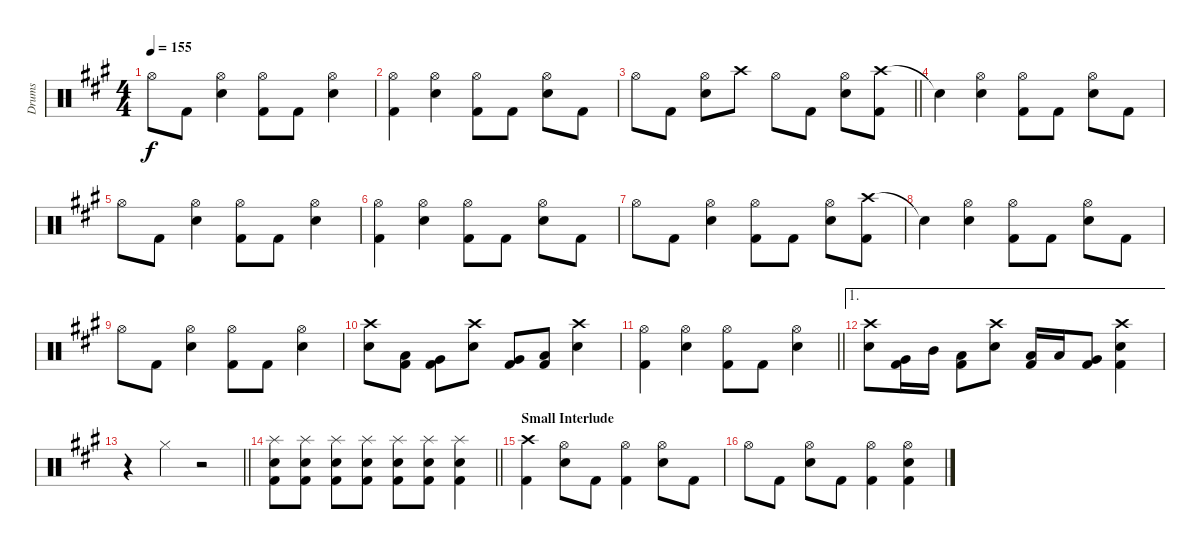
\track ("Drums" "Drums") {instrument percussion}
\staff {score}
\articulation defaults
\ts (4 4)
\tempo 155
\clef neutral
\ks a "Hi-Hat (open)".8{dy f} "Kick (hit) 2".8
("Hi-Hat (open)" "Snare (hit) 2").4 ("Hi-Hat (open)" "Kick (hit) 2").8 "Kick (hit) 2".8 ("Hi-Hat (open)" "Snare (hit) 2").4 |
("Hi-Hat (open)" "Kick (hit) 2").4 ("Hi-Hat (open)" "Snare (hit) 2").4 ("Hi-Hat (open)" "Kick (hit) 2").8 "Kick (hit) 2".8 ("Hi-Hat (open)" "Snare (hit) 2").8 "Kick (hit) 2".8 |
\barLineRight lightlight "Hi-Hat (open)".8 "Kick (hit) 2".8
("Hi-Hat (open)" "Snare (hit) 2").8 "Crash high (hit)".8 "Hi-Hat (open)".8 "Kick (hit) 2".8 ("Hi-Hat (open)" "Snare (hit) 2").8 ("Crash high (hit)" "Kick (hit) 2").8 |
"Snare (hit)"{t}.4 ("Hi-Hat (open)" "Snare (hit) 2").4 ("Hi-Hat (open)" "Kick (hit) 2").8 "Kick (hit) 2".8 ("Hi-Hat (open)" "Snare (hit) 2").8 "Kick (hit) 2".8 |
"Hi-Hat (open)".8 "Kick (hit) 2".8 ("Hi-Hat (open)" "Snare (hit) 2").4 ("Hi-Hat (open)" "Kick (hit) 2").8 "Kick (hit) 2".8 ("Hi-Hat (open)" "Snare (hit) 2").4 |
("Hi-Hat (open)" "Kick (hit) 2").4 ("Hi-Hat (open)" "Snare (hit) 2").4 ("Hi-Hat (open)" "Kick (hit) 2").8 "Kick (hit) 2".8 ("Hi-Hat (open)" "Snare (hit) 2").8 "Kick (hit) 2".8 |
"Hi-Hat (open)".8 "Kick (hit) 2".8 ("Hi-Hat (open)" "Snare (hit) 2").4 ("Hi-Hat (open)" "Kick (hit) 2").8 "Kick (hit) 2".8 ("Hi-Hat (open)" "Snare (hit) 2").8 ("Crash high (hit)" "Kick (hit) 2").8 |
"Snare (hit)"{t}.4 ("Hi-Hat (open)" "Snare (hit) 2").4 ("Hi-Hat (open)" "Kick (hit) 2").8 "Kick (hit) 2".8 ("Hi-Hat (open)" "Snare (hit) 2").8 "Kick (hit) 2".8 |
"Hi-Hat (open)".8 "Kick (hit) 2".8 ("Hi-Hat (open)" "Snare (hit) 2").4 ("Hi-Hat (open)" "Kick (hit) 2").8 "Kick (hit) 2".8 ("Hi-Hat (open)" "Snare (hit) 2").4 |
("Crash high (hit)" "Snare (hit) 2").8 ("Low Tom (hit)" "Kick (hit) 2").8 ("Very Low Tom (hit)" "Kick (hit) 2").8 ("Crash high (hit)" "Snare (hit) 2").8 ("Very Low Tom (hit)" "Kick (hit) 2").8 ("Low Floor Tom (hit)" "Kick (hit) 2").8 ("Crash high (hit)" "Snare (hit) 2").4 |
\barLineRight lightlight
("Hi-Hat (open)" "Kick (hit) 2").4 ("Hi-Hat (open)" "Snare (hit) 2").4 ("Hi-Hat (open)" "Kick (hit) 2").8 "Kick (hit) 2".8 ("Hi-Hat (open)" "Snare (hit) 2").4 |
\ae 1
("Crash high (hit)" "Snare (hit) 2").8 ("Very Low Tom (hit)" "Kick (hit) 2").16 "Mid Tom (hit)".16 ("Low Tom (hit)" "Kick (hit) 2").8 ("Crash high (hit)" "Snare (hit) 2").8 ("Low Floor Tom (hit)" "Kick (hit) 2").16 "Low Tom (hit)".16 ("Very Low Tom (hit)" "Kick (hit) 2").8 ("Crash high (hit)" "Snare (hit) 2" "Kick (hit) 2").4 |
\barLineRight lightlight
r.4 "Hi-Hat (closed)".4 r.2 |
\barLineRight lightlight
("Splash (hit)" "Snare (hit) 2" "Kick (hit) 2").8 ("Splash (hit)" "Snare (hit) 2" "Kick (hit) 2").8 ("Splash (hit)" "Snare (hit) 2" "Kick (hit) 2").8 ("Splash (hit)" "Snare (hit) 2" "Kick (hit) 2").8 ("Splash (hit)" "Snare (hit) 2" "Kick (hit) 2").8 ("Splash (hit)" "Snare (hit) 2" "Kick (hit) 2").8 ("Splash (hit)" "Snare (hit) 2" "Kick (hit) 2").4 |
\section ("" "Small Interlude")
("Crash high (hit)" "Kick (hit) 2").4 ("Hi-Hat (open)" "Snare (hit) 2").8 "Kick (hit) 2".8 ("Hi-Hat (open)" "Kick (hit) 2").4 ("Hi-Hat (open)" "Snare (hit) 2").8 "Kick (hit) 2".8 |
"Hi-Hat (open)".8 "Kick (hit) 2".8 ("Hi-Hat (open)" "Snare (hit) 2").8 "Kick (hit) 2".8 ("Hi-Hat (open)" "Kick (hit) 2").4 ("Hi-Hat (open)" "Snare (hit) 2" "Kick (hit) 2").4
